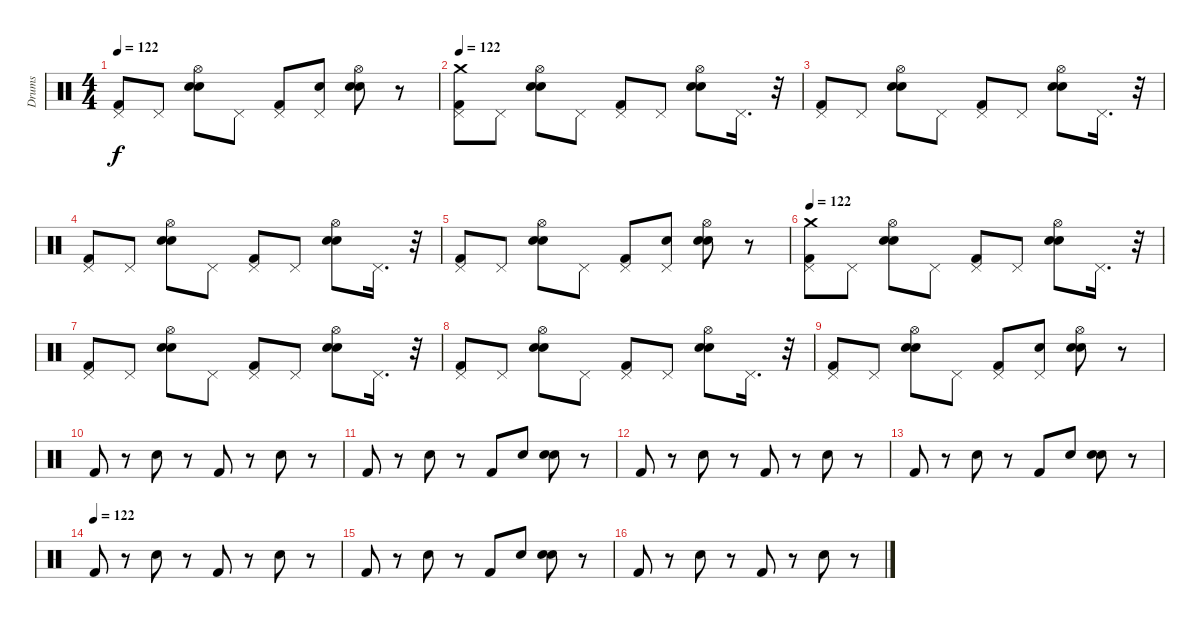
\track ("Drums" "Drums") {instrument percussion}
\staff {score}
\articulation defaults
\ts (4 4)
\tempo 122
\clef neutral
\ks c
("Pedal Hi-Hat (hit)" "Kick (hit) 2").8{dy f} "Pedal Hi-Hat (hit)".8 ("Hi-Hat (open)" "Snare (hit) 2" "Hand Clap (hit)").8 "Pedal Hi-Hat (hit)".8 ("Pedal Hi-Hat (hit)" "Kick (hit) 2").8 ("Pedal Hi-Hat (hit)" "Hand Clap (hit)").8 ("Hi-Hat (open)" "Snare (hit) 2" "Hand Clap (hit)").8 r.8 |
\tempo 122
("Pedal Hi-Hat (hit)" "Kick (hit) 2" "Crash medium (hit)").8 "Pedal Hi-Hat (hit)".8 ("Hi-Hat (open)" "Hand Clap (hit)" "Snare (hit) 2").8 "Pedal Hi-Hat (hit)".8 ("Pedal Hi-Hat (hit)" "Kick (hit) 2").8 "Pedal Hi-Hat (hit)".8 ("Hi-Hat (open)" "Hand Clap (hit)" "Snare (hit) 2").8 "Pedal Hi-Hat (hit)".16{d} r.32 |
("Pedal Hi-Hat (hit)" "Kick (hit) 2").8 "Pedal Hi-Hat (hit)".8 ("Hi-Hat (open)" "Snare (hit) 2" "Hand Clap (hit)").8 "Pedal Hi-Hat (hit)".8 ("Pedal Hi-Hat (hit)" "Kick (hit) 2").8 "Pedal Hi-Hat (hit)".8 ("Hi-Hat (open)" "Hand Clap (hit)" "Snare (hit) 2").8 "Pedal Hi-Hat (hit)".16{d} r.32 |
("Pedal Hi-Hat (hit)" "Kick (hit) 2").8 "Pedal Hi-Hat (hit)".8 ("Hi-Hat (open)" "Hand Clap (hit)" "Snare (hit) 2").8 "Pedal Hi-Hat (hit)".8 ("Pedal Hi-Hat (hit)" "Kick (hit) 2").8 "Pedal Hi-Hat (hit)".8 ("Hi-Hat (open)" "Hand Clap (hit)" "Snare (hit) 2").8 "Pedal Hi-Hat (hit)".16{d} r.32 |
("Pedal Hi-Hat (hit)" "Kick (hit) 2").8 "Pedal Hi-Hat (hit)".8 ("Hi-Hat (open)" "Snare (hit) 2" "Hand Clap (hit)").8 "Pedal Hi-Hat (hit)".8 ("Pedal Hi-Hat (hit)" "Kick (hit) 2").8 ("Pedal Hi-Hat (hit)" "Hand Clap (hit)").8 ("Hi-Hat (open)" "Snare (hit) 2" "Hand Clap (hit)").8 r.8 |
\tempo 122
("Pedal Hi-Hat (hit)" "Kick (hit) 2" "Crash medium (hit)").8 "Pedal Hi-Hat (hit)".8 ("Hi-Hat (open)" "Hand Clap (hit)" "Snare (hit) 2").8 "Pedal Hi-Hat (hit)".8 ("Pedal Hi-Hat (hit)" "Kick (hit) 2").8 "Pedal Hi-Hat (hit)".8 ("Hi-Hat (open)" "Hand Clap (hit)" "Snare (hit) 2").8 "Pedal Hi-Hat (hit)".16{d} r.32 |
("Pedal Hi-Hat (hit)" "Kick (hit) 2").8 "Pedal Hi-Hat (hit)".8 ("Hi-Hat (open)" "Snare (hit) 2" "Hand Clap (hit)").8 "Pedal Hi-Hat (hit)".8 ("Pedal Hi-Hat (hit)" "Kick (hit) 2").8 "Pedal Hi-Hat (hit)".8 ("Hi-Hat (open)" "Hand Clap (hit)" "Snare (hit) 2").8 "Pedal Hi-Hat (hit)".16{d} r.32 |
("Pedal Hi-Hat (hit)" "Kick (hit) 2").8 "Pedal Hi-Hat (hit)".8 ("Hi-Hat (open)" "Hand Clap (hit)" "Snare (hit) 2").8 "Pedal Hi-Hat (hit)".8 ("Pedal Hi-Hat (hit)" "Kick (hit) 2").8 "Pedal Hi-Hat (hit)".8 ("Hi-Hat (open)" "Hand Clap (hit)" "Snare (hit) 2").8 "Pedal Hi-Hat (hit)".16{d} r.32 |
("Pedal Hi-Hat (hit)" "Kick (hit) 2").8 "Pedal Hi-Hat (hit)".8 ("Hi-Hat (open)" "Snare (hit) 2" "Hand Clap (hit)").8 "Pedal Hi-Hat (hit)".8 ("Pedal Hi-Hat (hit)" "Kick (hit) 2").8 ("Pedal Hi-Hat (hit)" "Hand Clap (hit)").8 ("Hi-Hat (open)" "Snare (hit) 2" "Hand Clap (hit)").8 r.8 |
"Kick (hit) 2".8 r.8 "Snare (hit) 2".8 r.8 "Kick (hit) 2".8 r.8 "Snare (hit) 2".8 r.8 |
"Kick (hit) 2".8 r.8 "Snare (hit) 2".8 r.8 "Kick (hit) 2".8 "Hand Clap (hit)".8 ("Snare (hit) 2" "Hand Clap (hit)").8 r.8 |
"Kick (hit) 2".8 r.8 "Snare (hit) 2".8 r.8 "Kick (hit) 2".8 r.8 "Snare (hit) 2".8 r.8 |
"Kick (hit) 2".8 r.8 "Snare (hit) 2".8 r.8 "Kick (hit) 2".8 "Hand Clap (hit)".8 ("Snare (hit) 2" "Hand Clap (hit)").8 r.8 |
\tempo (122)
"Kick (hit) 2".8 r.8 "Snare (hit) 2".8 r.8 "Kick (hit) 2".8 r.8 "Snare (hit) 2".8 r.8 |
"Kick (hit) 2".8 r.8 "Snare (hit) 2".8 r.8 "Kick (hit) 2".8 "Hand Clap (hit)".8 ("Snare (hit) 2" "Hand Clap (hit)").8 r.8 |
"Kick (hit) 2".8 r.8 "Snare (hit) 2".8 r.8 "Kick (hit) 2".8 r.8 "Snare (hit) 2".8 r.8
